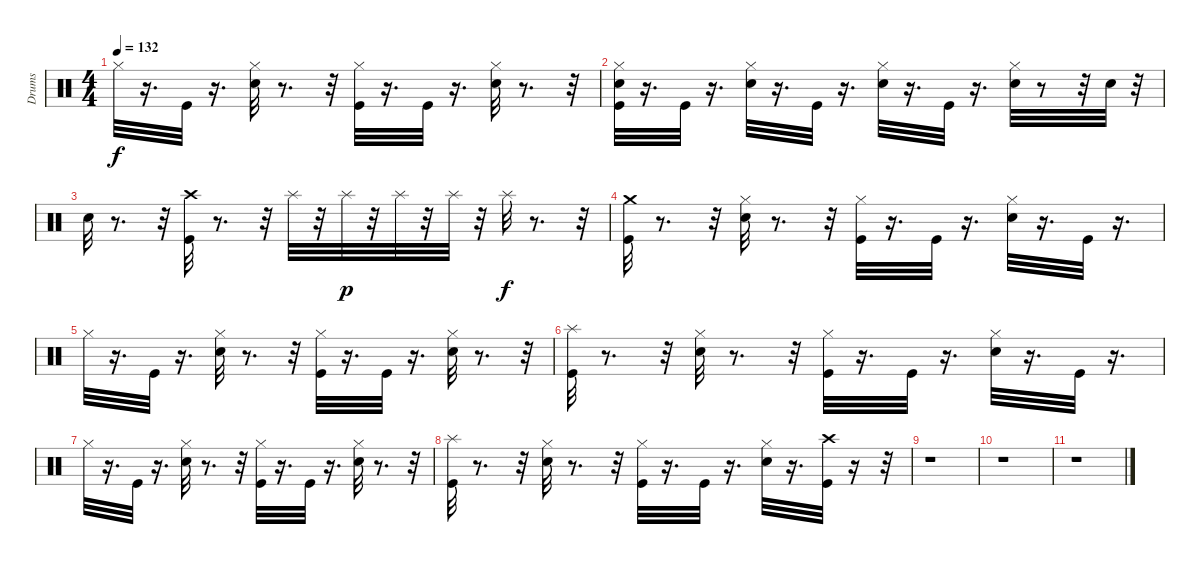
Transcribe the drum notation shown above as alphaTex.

\track ("Drums" "Drums") {instrument percussion}
\staff {score}
\articulation defaults
\ts (4 4)
\tempo 132
\clef neutral
\ks c "Hi-Hat (closed)".32{dy f}
r.16{d} "Kick (hit)".32 r.16{d} ("Hi-Hat (closed)" "Snare (hit) 2").32 r.8{d} r.32 ("Kick (hit)" "Hi-Hat (closed)").32 r.16{d} "Kick (hit)".32 r.16{d} ("Hi-Hat (closed)" "Snare (hit) 2").32 r.8{d} r.32 |
("Hi-Hat (closed)" "Snare (hit) 2" "Kick (hit)").32 r.16{d} "Kick (hit)".32 r.16{d} ("Hi-Hat (closed)" "Snare (hit) 2").32 r.16{d} "Kick (hit)".32 r.16{d} ("Hi-Hat (closed)" "Snare (hit) 2").32 r.16{d} "Kick (hit)".32 r.16{d} ("Hi-Hat (closed)" "Snare (hit) 2").32 r.8 r.32 "Snare (hit) 2".32 r.32 |
"Snare (hit) 2".32 r.8{d} r.32 ("Crash high (hit)" "Kick (hit)").32 r.8{d} r.32 "Splash (hit)".32 r.32 "Splash (hit)".32{dy p} r.32 "Splash (hit)".32 r.32 "Splash (hit)".32 r.32 "Splash (hit)".32{dy f} r.8{d} r.32 |
("Crash medium (hit)" "Kick (hit)").32 r.8{d} r.32 ("Hi-Hat (closed)" "Snare (hit) 2").32 r.8{d} r.32 ("Kick (hit)" "Hi-Hat (closed)").32 r.16{d} "Kick (hit)".32 r.16{d} ("Hi-Hat (closed)" "Snare (hit) 2").32 r.16{d} "Kick (hit)".32 r.16{d} |
"Hi-Hat (closed)".32 r.16{d} "Kick (hit)".32 r.16{d} ("Hi-Hat (closed)" "Snare (hit) 2").32 r.8{d} r.32 ("Hi-Hat (closed)" "Kick (hit)").32 r.16{d} "Kick (hit)".32 r.16{d} ("Snare (hit) 2" "Hi-Hat (closed)").32 r.8{d} r.32 |
("Splash (hit)" "Kick (hit)").32 r.8{d} r.32 ("Hi-Hat (closed)" "Snare (hit) 2").32 r.8{d} r.32 ("Kick (hit)" "Hi-Hat (closed)").32 r.16{d} "Kick (hit)".32 r.16{d} ("Hi-Hat (closed)" "Snare (hit) 2").32 r.16{d} "Kick (hit)".32 r.16{d} |
"Hi-Hat (closed)".32 r.16{d} "Kick (hit)".32 r.16{d} ("Hi-Hat (closed)" "Snare (hit) 2").32 r.8{d} r.32 ("Hi-Hat (closed)" "Kick (hit)").32 r.16{d} "Kick (hit)".32 r.16{d} ("Hi-Hat (closed)" "Snare (hit) 2").32 r.8{d} r.32 |
("Splash (hit)" "Kick (hit)").32 r.8{d} r.32 ("Hi-Hat (closed)" "Snare (hit) 2").32 r.8{d} r.32 ("Kick (hit)" "Hi-Hat (closed)").32 r.16{d} "Kick (hit)".32 r.16{d} ("Hi-Hat (closed)" "Snare (hit) 2").32 r.16{d} ("Crash high (hit)" "Kick (hit)").32 r.16 r.32 |
r.1 |
r.1 |
r.1
